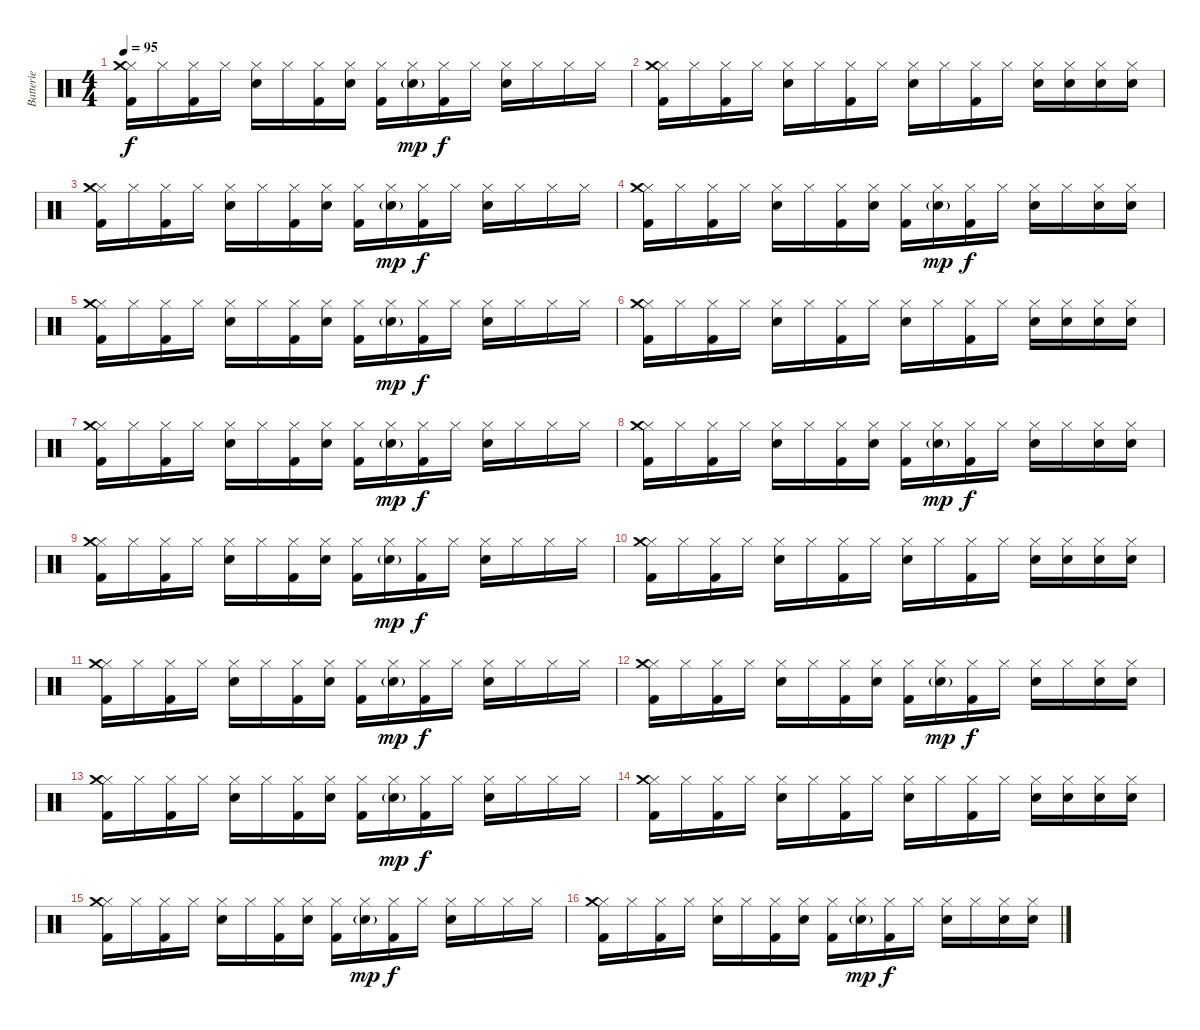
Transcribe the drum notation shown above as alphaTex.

\track ("Batterie" "Batterie") {instrument percussion}
\staff {score}
\articulation defaults
\ts (4 4)
\tempo 95
\clef neutral
\ks c
("Hi-Hat (closed)" "Crash medium (hit)" "Kick (hit) 2").16{dy f} "Hi-Hat (closed)".16 ("Hi-Hat (closed)" "Kick (hit) 2").16 "Hi-Hat (closed)".16 ("Hi-Hat (closed)" "Electric Snare (hit)").16 "Hi-Hat (closed)".16 ("Hi-Hat (closed)" "Kick (hit) 2").16 ("Hi-Hat (closed)" "Electric Snare (hit)").16 ("Hi-Hat (closed)" "Kick (hit) 2").16 ("Hi-Hat (closed)" "Electric Snare (hit)"{g}).16{dy mp} ("Hi-Hat (closed)" "Kick (hit) 2").16{dy f} "Hi-Hat (closed)".16 ("Hi-Hat (closed)" "Electric Snare (hit)").16 "Hi-Hat (closed)".16 "Hi-Hat (closed)".16 "Hi-Hat (closed)".16 |
("Hi-Hat (closed)" "Crash medium (hit)" "Kick (hit) 2").16 "Hi-Hat (closed)".16 ("Hi-Hat (closed)" "Kick (hit) 2").16 "Hi-Hat (closed)".16 ("Hi-Hat (closed)" "Electric Snare (hit)").16 "Hi-Hat (closed)".16 ("Hi-Hat (closed)" "Kick (hit) 2").16 "Hi-Hat (closed)".16 ("Hi-Hat (closed)" "Electric Snare (hit)").16 "Hi-Hat (closed)".16 ("Hi-Hat (closed)" "Kick (hit) 2").16 "Hi-Hat (closed)".16 ("Hi-Hat (closed)" "Electric Snare (hit)").16 ("Hi-Hat (closed)" "Electric Snare (hit)").16 ("Hi-Hat (closed)" "Electric Snare (hit)").16 ("Hi-Hat (closed)" "Electric Snare (hit)").16 |
("Hi-Hat (closed)" "Crash medium (hit)" "Kick (hit) 2").16 "Hi-Hat (closed)".16 ("Hi-Hat (closed)" "Kick (hit) 2").16 "Hi-Hat (closed)".16 ("Hi-Hat (closed)" "Electric Snare (hit)").16 "Hi-Hat (closed)".16 ("Hi-Hat (closed)" "Kick (hit) 2").16 ("Hi-Hat (closed)" "Electric Snare (hit)").16 ("Hi-Hat (closed)" "Kick (hit) 2").16 ("Hi-Hat (closed)" "Electric Snare (hit)"{g}).16{dy mp} ("Hi-Hat (closed)" "Kick (hit) 2").16{dy f} "Hi-Hat (closed)".16 ("Hi-Hat (closed)" "Electric Snare (hit)").16 "Hi-Hat (closed)".16 "Hi-Hat (closed)".16 "Hi-Hat (closed)".16 |
("Hi-Hat (closed)" "Crash medium (hit)" "Kick (hit) 2").16 "Hi-Hat (closed)".16 ("Hi-Hat (closed)" "Kick (hit) 2").16 "Hi-Hat (closed)".16 ("Hi-Hat (closed)" "Electric Snare (hit)").16 "Hi-Hat (closed)".16 ("Hi-Hat (closed)" "Kick (hit) 2").16 ("Hi-Hat (closed)" "Electric Snare (hit)").16 ("Hi-Hat (closed)" "Kick (hit) 2").16 ("Hi-Hat (closed)" "Electric Snare (hit)"{g}).16{dy mp} ("Hi-Hat (closed)" "Kick (hit) 2").16{dy f} "Hi-Hat (closed)".16 ("Hi-Hat (closed)" "Electric Snare (hit)").16 "Hi-Hat (closed)".16 ("Hi-Hat (closed)" "Electric Snare (hit)").16 ("Hi-Hat (closed)" "Electric Snare (hit)").16 |
("Hi-Hat (closed)" "Crash medium (hit)" "Kick (hit) 2").16 "Hi-Hat (closed)".16 ("Hi-Hat (closed)" "Kick (hit) 2").16 "Hi-Hat (closed)".16 ("Hi-Hat (closed)" "Electric Snare (hit)").16 "Hi-Hat (closed)".16 ("Hi-Hat (closed)" "Kick (hit) 2").16 ("Hi-Hat (closed)" "Electric Snare (hit)").16 ("Hi-Hat (closed)" "Kick (hit) 2").16 ("Hi-Hat (closed)" "Electric Snare (hit)"{g}).16{dy mp} ("Hi-Hat (closed)" "Kick (hit) 2").16{dy f} "Hi-Hat (closed)".16 ("Hi-Hat (closed)" "Electric Snare (hit)").16 "Hi-Hat (closed)".16 "Hi-Hat (closed)".16 "Hi-Hat (closed)".16 |
("Hi-Hat (closed)" "Crash medium (hit)" "Kick (hit) 2").16 "Hi-Hat (closed)".16 ("Hi-Hat (closed)" "Kick (hit) 2").16 "Hi-Hat (closed)".16 ("Hi-Hat (closed)" "Electric Snare (hit)").16 "Hi-Hat (closed)".16 ("Hi-Hat (closed)" "Kick (hit) 2").16 "Hi-Hat (closed)".16 ("Hi-Hat (closed)" "Electric Snare (hit)").16 "Hi-Hat (closed)".16 ("Hi-Hat (closed)" "Kick (hit) 2").16 "Hi-Hat (closed)".16 ("Hi-Hat (closed)" "Electric Snare (hit)").16 ("Hi-Hat (closed)" "Electric Snare (hit)").16 ("Hi-Hat (closed)" "Electric Snare (hit)").16 ("Hi-Hat (closed)" "Electric Snare (hit)").16 |
("Hi-Hat (closed)" "Crash medium (hit)" "Kick (hit) 2").16 "Hi-Hat (closed)".16 ("Hi-Hat (closed)" "Kick (hit) 2").16 "Hi-Hat (closed)".16 ("Hi-Hat (closed)" "Electric Snare (hit)").16 "Hi-Hat (closed)".16 ("Hi-Hat (closed)" "Kick (hit) 2").16 ("Hi-Hat (closed)" "Electric Snare (hit)").16 ("Hi-Hat (closed)" "Kick (hit) 2").16 ("Hi-Hat (closed)" "Electric Snare (hit)"{g}).16{dy mp} ("Hi-Hat (closed)" "Kick (hit) 2").16{dy f} "Hi-Hat (closed)".16 ("Hi-Hat (closed)" "Electric Snare (hit)").16 "Hi-Hat (closed)".16 "Hi-Hat (closed)".16 "Hi-Hat (closed)".16 |
("Hi-Hat (closed)" "Crash medium (hit)" "Kick (hit) 2").16 "Hi-Hat (closed)".16 ("Hi-Hat (closed)" "Kick (hit) 2").16 "Hi-Hat (closed)".16 ("Hi-Hat (closed)" "Electric Snare (hit)").16 "Hi-Hat (closed)".16 ("Hi-Hat (closed)" "Kick (hit) 2").16 ("Hi-Hat (closed)" "Electric Snare (hit)").16 ("Hi-Hat (closed)" "Kick (hit) 2").16 ("Hi-Hat (closed)" "Electric Snare (hit)"{g}).16{dy mp} ("Hi-Hat (closed)" "Kick (hit) 2").16{dy f} "Hi-Hat (closed)".16 ("Hi-Hat (closed)" "Electric Snare (hit)").16 "Hi-Hat (closed)".16 ("Hi-Hat (closed)" "Electric Snare (hit)").16 ("Hi-Hat (closed)" "Electric Snare (hit)").16 |
("Hi-Hat (closed)" "Crash medium (hit)" "Kick (hit) 2").16 "Hi-Hat (closed)".16 ("Hi-Hat (closed)" "Kick (hit) 2").16 "Hi-Hat (closed)".16 ("Hi-Hat (closed)" "Electric Snare (hit)").16 "Hi-Hat (closed)".16 ("Hi-Hat (closed)" "Kick (hit) 2").16 ("Hi-Hat (closed)" "Electric Snare (hit)").16 ("Hi-Hat (closed)" "Kick (hit) 2").16 ("Hi-Hat (closed)" "Electric Snare (hit)"{g}).16{dy mp} ("Hi-Hat (closed)" "Kick (hit) 2").16{dy f} "Hi-Hat (closed)".16 ("Hi-Hat (closed)" "Electric Snare (hit)").16 "Hi-Hat (closed)".16 "Hi-Hat (closed)".16 "Hi-Hat (closed)".16 |
("Hi-Hat (closed)" "Crash medium (hit)" "Kick (hit) 2").16 "Hi-Hat (closed)".16 ("Hi-Hat (closed)" "Kick (hit) 2").16 "Hi-Hat (closed)".16 ("Hi-Hat (closed)" "Electric Snare (hit)").16 "Hi-Hat (closed)".16 ("Hi-Hat (closed)" "Kick (hit) 2").16 "Hi-Hat (closed)".16 ("Hi-Hat (closed)" "Electric Snare (hit)").16 "Hi-Hat (closed)".16 ("Hi-Hat (closed)" "Kick (hit) 2").16 "Hi-Hat (closed)".16 ("Hi-Hat (closed)" "Electric Snare (hit)").16 ("Hi-Hat (closed)" "Electric Snare (hit)").16 ("Hi-Hat (closed)" "Electric Snare (hit)").16 ("Hi-Hat (closed)" "Electric Snare (hit)").16 |
("Hi-Hat (closed)" "Crash medium (hit)" "Kick (hit) 2").16 "Hi-Hat (closed)".16 ("Hi-Hat (closed)" "Kick (hit) 2").16 "Hi-Hat (closed)".16 ("Hi-Hat (closed)" "Electric Snare (hit)").16 "Hi-Hat (closed)".16 ("Hi-Hat (closed)" "Kick (hit) 2").16 ("Hi-Hat (closed)" "Electric Snare (hit)").16 ("Hi-Hat (closed)" "Kick (hit) 2").16 ("Hi-Hat (closed)" "Electric Snare (hit)"{g}).16{dy mp} ("Hi-Hat (closed)" "Kick (hit) 2").16{dy f} "Hi-Hat (closed)".16 ("Hi-Hat (closed)" "Electric Snare (hit)").16 "Hi-Hat (closed)".16 "Hi-Hat (closed)".16 "Hi-Hat (closed)".16 |
("Hi-Hat (closed)" "Crash medium (hit)" "Kick (hit) 2").16 "Hi-Hat (closed)".16 ("Hi-Hat (closed)" "Kick (hit) 2").16 "Hi-Hat (closed)".16 ("Hi-Hat (closed)" "Electric Snare (hit)").16 "Hi-Hat (closed)".16 ("Hi-Hat (closed)" "Kick (hit) 2").16 ("Hi-Hat (closed)" "Electric Snare (hit)").16 ("Hi-Hat (closed)" "Kick (hit) 2").16 ("Hi-Hat (closed)" "Electric Snare (hit)"{g}).16{dy mp} ("Hi-Hat (closed)" "Kick (hit) 2").16{dy f} "Hi-Hat (closed)".16 ("Hi-Hat (closed)" "Electric Snare (hit)").16 "Hi-Hat (closed)".16 ("Hi-Hat (closed)" "Electric Snare (hit)").16 ("Hi-Hat (closed)" "Electric Snare (hit)").16 |
("Hi-Hat (closed)" "Crash medium (hit)" "Kick (hit) 2").16 "Hi-Hat (closed)".16 ("Hi-Hat (closed)" "Kick (hit) 2").16 "Hi-Hat (closed)".16 ("Hi-Hat (closed)" "Electric Snare (hit)").16 "Hi-Hat (closed)".16 ("Hi-Hat (closed)" "Kick (hit) 2").16 ("Hi-Hat (closed)" "Electric Snare (hit)").16 ("Hi-Hat (closed)" "Kick (hit) 2").16 ("Hi-Hat (closed)" "Electric Snare (hit)"{g}).16{dy mp} ("Hi-Hat (closed)" "Kick (hit) 2").16{dy f} "Hi-Hat (closed)".16 ("Hi-Hat (closed)" "Electric Snare (hit)").16 "Hi-Hat (closed)".16 "Hi-Hat (closed)".16 "Hi-Hat (closed)".16 |
("Hi-Hat (closed)" "Crash medium (hit)" "Kick (hit) 2").16 "Hi-Hat (closed)".16 ("Hi-Hat (closed)" "Kick (hit) 2").16 "Hi-Hat (closed)".16 ("Hi-Hat (closed)" "Electric Snare (hit)").16 "Hi-Hat (closed)".16 ("Hi-Hat (closed)" "Kick (hit) 2").16 "Hi-Hat (closed)".16 ("Hi-Hat (closed)" "Electric Snare (hit)").16 "Hi-Hat (closed)".16 ("Hi-Hat (closed)" "Kick (hit) 2").16 "Hi-Hat (closed)".16 ("Hi-Hat (closed)" "Electric Snare (hit)").16 ("Hi-Hat (closed)" "Electric Snare (hit)").16 ("Hi-Hat (closed)" "Electric Snare (hit)").16 ("Hi-Hat (closed)" "Electric Snare (hit)").16 |
("Hi-Hat (closed)" "Crash medium (hit)" "Kick (hit) 2").16 "Hi-Hat (closed)".16 ("Hi-Hat (closed)" "Kick (hit) 2").16 "Hi-Hat (closed)".16 ("Hi-Hat (closed)" "Electric Snare (hit)").16 "Hi-Hat (closed)".16 ("Hi-Hat (closed)" "Kick (hit) 2").16 ("Hi-Hat (closed)" "Electric Snare (hit)").16 ("Hi-Hat (closed)" "Kick (hit) 2").16 ("Hi-Hat (closed)" "Electric Snare (hit)"{g}).16{dy mp} ("Hi-Hat (closed)" "Kick (hit) 2").16{dy f} "Hi-Hat (closed)".16 ("Hi-Hat (closed)" "Electric Snare (hit)").16 "Hi-Hat (closed)".16 "Hi-Hat (closed)".16 "Hi-Hat (closed)".16 |
("Hi-Hat (closed)" "Crash medium (hit)" "Kick (hit) 2").16 "Hi-Hat (closed)".16 ("Hi-Hat (closed)" "Kick (hit) 2").16 "Hi-Hat (closed)".16 ("Hi-Hat (closed)" "Electric Snare (hit)").16 "Hi-Hat (closed)".16 ("Hi-Hat (closed)" "Kick (hit) 2").16 ("Hi-Hat (closed)" "Electric Snare (hit)").16 ("Hi-Hat (closed)" "Kick (hit) 2").16 ("Hi-Hat (closed)" "Electric Snare (hit)"{g}).16{dy mp} ("Hi-Hat (closed)" "Kick (hit) 2").16{dy f} "Hi-Hat (closed)".16 ("Hi-Hat (closed)" "Electric Snare (hit)").16 "Hi-Hat (closed)".16 ("Hi-Hat (closed)" "Electric Snare (hit)").16 ("Hi-Hat (closed)" "Electric Snare (hit)").16
